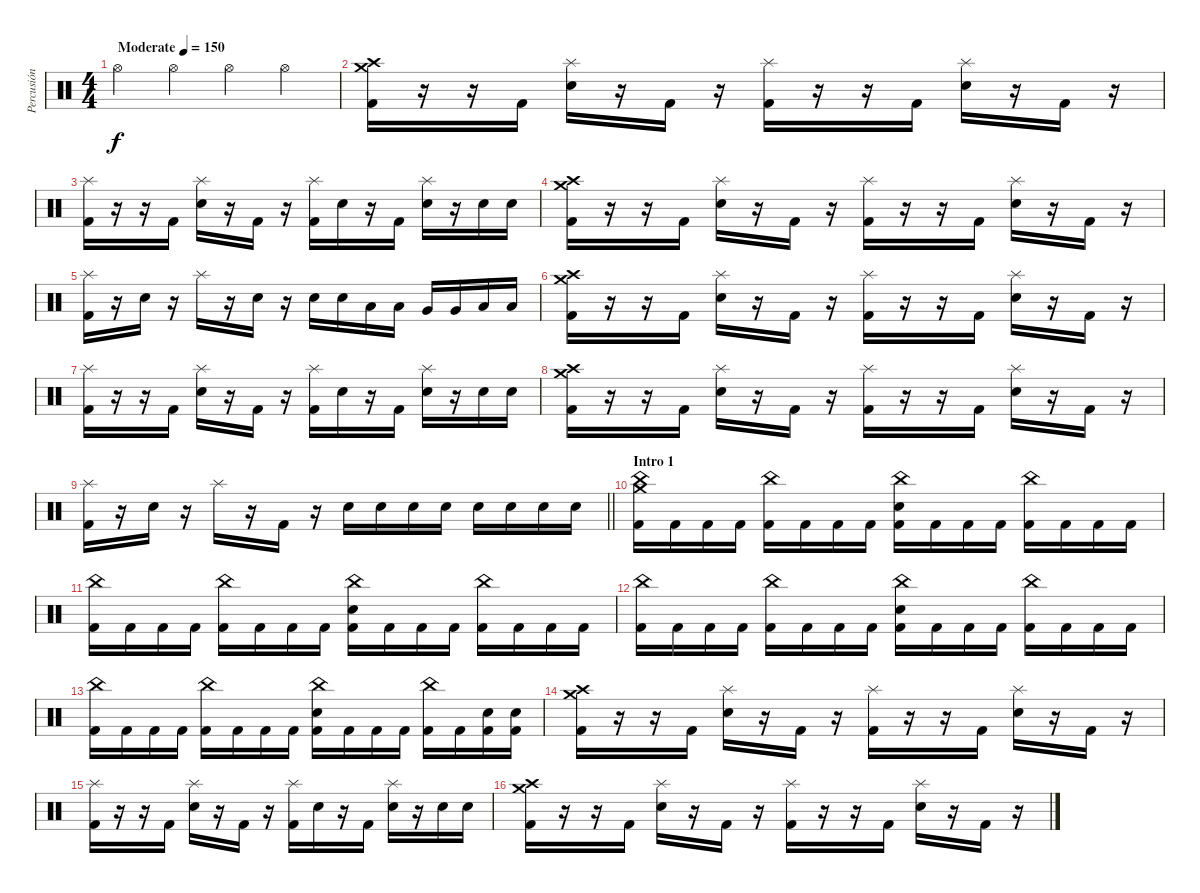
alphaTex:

\track ("Percusión" "Percusión") {instrument percussion}
\staff {score}
\articulation defaults
\ts (4 4)
\tempo (150 "Moderate")
\clef neutral
\ks c "Hi-Hat (open)".4{dy f} "Hi-Hat (open)".4 "Hi-Hat (open)".4 "Hi-Hat (open)".4
|
("Crash medium (hit)" "Crash high (hit)" "Kick (hit) 2").16 r.16 r.16 "Kick (hit) 2".16 ("Splash (hit)" "Electric Snare (hit)").16 r.16 "Kick (hit) 2".16 r.16 ("Splash (hit)" "Kick (hit) 2").16 r.16 r.16 "Kick (hit) 2".16 ("Splash (hit)" "Electric Snare (hit)").16 r.16 "Kick (hit) 2".16 r.16 |
("Splash (hit)" "Kick (hit) 2").16 r.16 r.16 "Kick (hit) 2".16 ("Splash (hit)" "Electric Snare (hit)").16 r.16 "Kick (hit) 2".16 r.16 ("Splash (hit)" "Kick (hit) 2").16 "Electric Snare (hit)".16 r.16 "Kick (hit) 2".16 ("Splash (hit)" "Electric Snare (hit)").16 r.16 "Electric Snare (hit)".16 "Electric Snare (hit)".16 |
("Crash medium (hit)" "Crash high (hit)" "Kick (hit) 2").16 r.16 r.16 "Kick (hit) 2".16 ("Splash (hit)" "Electric Snare (hit)").16 r.16 "Kick (hit) 2".16 r.16 ("Splash (hit)" "Kick (hit) 2").16 r.16 r.16 "Kick (hit) 2".16 ("Splash (hit)" "Electric Snare (hit)").16 r.16 "Kick (hit) 2".16 r.16 |
("Splash (hit)" "Kick (hit) 2").16 r.16 "Electric Snare (hit)".16 r.16 "Splash (hit)".16 r.16 "Electric Snare (hit)".16 r.16 "Electric Snare (hit)".16 "Electric Snare (hit)".16 "Low Tom (hit)".16 "Low Tom (hit)".16 "Very Low Tom (hit)".16 "Very Low Tom (hit)".16 "Low Floor Tom (hit)".16 "Low Floor Tom (hit)".16 |
("Crash medium (hit)" "Crash high (hit)" "Kick (hit) 2").16 r.16 r.16 "Kick (hit) 2".16 ("Splash (hit)" "Electric Snare (hit)").16 r.16 "Kick (hit) 2".16 r.16 ("Splash (hit)" "Kick (hit) 2").16 r.16 r.16 "Kick (hit) 2".16 ("Splash (hit)" "Electric Snare (hit)").16 r.16 "Kick (hit) 2".16 r.16 |
("Splash (hit)" "Kick (hit) 2").16 r.16 r.16 "Kick (hit) 2".16 ("Splash (hit)" "Electric Snare (hit)").16 r.16 "Kick (hit) 2".16 r.16 ("Splash (hit)" "Kick (hit) 2").16 "Electric Snare (hit)".16 r.16 "Kick (hit) 2".16 ("Splash (hit)" "Electric Snare (hit)").16 r.16 "Electric Snare (hit)".16 "Electric Snare (hit)".16 |
("Crash medium (hit)" "Crash high (hit)" "Kick (hit) 2").16 r.16 r.16 "Kick (hit) 2".16 ("Splash (hit)" "Electric Snare (hit)").16 r.16 "Kick (hit) 2".16 r.16 ("Splash (hit)" "Kick (hit) 2").16 r.16 r.16 "Kick (hit) 2".16 ("Splash (hit)" "Electric Snare (hit)").16 r.16 "Kick (hit) 2".16 r.16 |
\barLineRight lightlight
("Splash (hit)" "Kick (hit) 2").16 r.16 "Electric Snare (hit)".16 r.16 "Splash (hit)".16 r.16 "Kick (hit) 2".16 r.16 "Electric Snare (hit)".16 "Electric Snare (hit)".16 "Electric Snare (hit)".16 "Electric Snare (hit)".16 "Electric Snare (hit)".16 "Electric Snare (hit)".16 "Electric Snare (hit)".16 "Electric Snare (hit)".16 |
\section ("" "Intro 1")
("China (hit)" "Crash medium (hit)" "Kick (hit) 2").16 "Kick (hit) 2".16 "Kick (hit) 2".16 "Kick (hit) 2".16 ("China (hit)" "Kick (hit) 2").16 "Kick (hit) 2".16 "Kick (hit) 2".16 "Kick (hit) 2".16 ("China (hit)" "Electric Snare (hit)" "Kick (hit) 2").16 "Kick (hit) 2".16 "Kick (hit) 2".16 "Kick (hit) 2".16 ("China (hit)" "Kick (hit) 2").16 "Kick (hit) 2".16 "Kick (hit) 2".16 "Kick (hit) 2".16 |
("China (hit)" "Kick (hit) 2").16 "Kick (hit) 2".16 "Kick (hit) 2".16 "Kick (hit) 2".16 ("China (hit)" "Kick (hit) 2").16 "Kick (hit) 2".16 "Kick (hit) 2".16 "Kick (hit) 2".16 ("China (hit)" "Electric Snare (hit)" "Kick (hit) 2").16 "Kick (hit) 2".16 "Kick (hit) 2".16 "Kick (hit) 2".16 ("China (hit)" "Kick (hit) 2").16 "Kick (hit) 2".16 "Kick (hit) 2".16 "Kick (hit) 2".16 |
("China (hit)" "Kick (hit) 2").16 "Kick (hit) 2".16 "Kick (hit) 2".16 "Kick (hit) 2".16 ("China (hit)" "Kick (hit) 2").16 "Kick (hit) 2".16 "Kick (hit) 2".16 "Kick (hit) 2".16 ("China (hit)" "Electric Snare (hit)" "Kick (hit) 2").16 "Kick (hit) 2".16 "Kick (hit) 2".16 "Kick (hit) 2".16 ("China (hit)" "Kick (hit) 2").16 "Kick (hit) 2".16 "Kick (hit) 2".16 "Kick (hit) 2".16 |
("China (hit)" "Kick (hit) 2").16 "Kick (hit) 2".16 "Kick (hit) 2".16 "Kick (hit) 2".16 ("China (hit)" "Kick (hit) 2").16 "Kick (hit) 2".16 "Kick (hit) 2".16 "Kick (hit) 2".16 ("China (hit)" "Electric Snare (hit)" "Kick (hit) 2").16 "Kick (hit) 2".16 "Kick (hit) 2".16 "Kick (hit) 2".16 ("China (hit)" "Kick (hit) 2").16 "Kick (hit) 2".16 ("Electric Snare (hit)" "Kick (hit) 2").16 ("Electric Snare (hit)" "Kick (hit) 2").16 |
("Crash medium (hit)" "Crash high (hit)" "Kick (hit) 2").16 r.16 r.16 "Kick (hit) 2".16 ("Splash (hit)" "Electric Snare (hit)").16 r.16 "Kick (hit) 2".16 r.16 ("Splash (hit)" "Kick (hit) 2").16 r.16 r.16 "Kick (hit) 2".16 ("Splash (hit)" "Electric Snare (hit)").16 r.16 "Kick (hit) 2".16 r.16 |
("Splash (hit)" "Kick (hit) 2").16 r.16 r.16 "Kick (hit) 2".16 ("Splash (hit)" "Electric Snare (hit)").16 r.16 "Kick (hit) 2".16 r.16 ("Splash (hit)" "Kick (hit) 2").16 "Electric Snare (hit)".16 r.16 "Kick (hit) 2".16 ("Splash (hit)" "Electric Snare (hit)").16 r.16 "Electric Snare (hit)".16 "Electric Snare (hit)".16 |
("Crash medium (hit)" "Crash high (hit)" "Kick (hit) 2").16 r.16 r.16 "Kick (hit) 2".16 ("Splash (hit)" "Electric Snare (hit)").16 r.16 "Kick (hit) 2".16 r.16 ("Splash (hit)" "Kick (hit) 2").16 r.16 r.16 "Kick (hit) 2".16 ("Splash (hit)" "Electric Snare (hit)").16 r.16 "Kick (hit) 2".16 r.16
